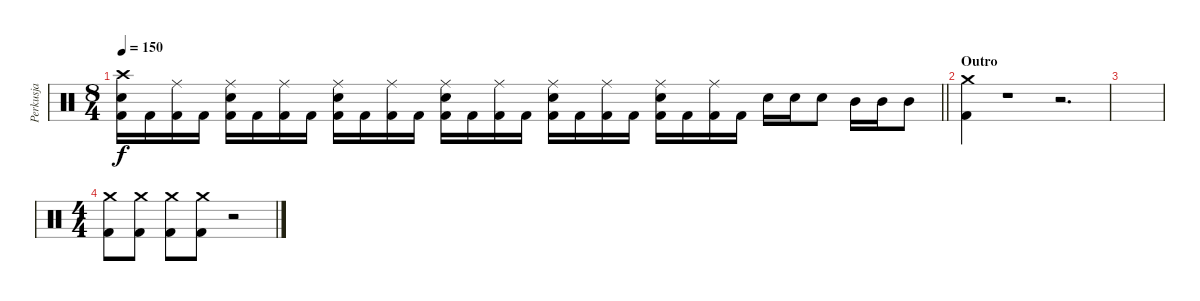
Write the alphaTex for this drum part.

\track ("Perkusja" "Perkusja") {instrument percussion}
\staff {score}
\articulation defaults
\ts (8 4)
\tempo 150
\clef neutral
\barLineRight lightlight
\ks c
("Crash high (hit)" "Snare (hit) 2" "Kick (hit) 2").16{dy f} "Kick (hit) 2".16 ("Ride (middle)" "Kick (hit) 2").16 "Kick (hit) 2".16 ("Ride (middle)" "Snare (hit) 2" "Kick (hit) 2").16 "Kick (hit) 2".16 ("Ride (middle)" "Kick (hit) 2").16 "Kick (hit) 2".16 ("Ride (middle)" "Snare (hit) 2" "Kick (hit) 2").16 "Kick (hit) 2".16 ("Ride (middle)" "Kick (hit) 2").16 "Kick (hit) 2".16 ("Ride (middle)" "Snare (hit) 2" "Kick (hit) 2").16 "Kick (hit) 2".16 ("Ride (middle)" "Kick (hit) 2").16 "Kick (hit) 2".16 ("Ride (middle)" "Snare (hit) 2" "Kick (hit) 2").16 "Kick (hit) 2".16 ("Ride (middle)" "Kick (hit) 2").16 "Kick (hit) 2".16 ("Ride (middle)" "Snare (hit) 2" "Kick (hit) 2").16 "Kick (hit) 2".16 ("Ride (middle)" "Kick (hit) 2").16 "Kick (hit) 2".16 "Snare (hit) 2".16 "Snare (hit) 2".16 "Snare (hit) 2".8 "Mid Tom (hit)".16 "Mid Tom (hit)".16 "Mid Tom (hit)".8 |
\section ("" "Outro")
("Crash medium (hit)" "Kick (hit) 2").4 r.1 r.2{d} |
|
\ts (4 4)
("Crash medium (hit)" "Kick (hit) 2").8 ("Crash medium (hit)" "Kick (hit) 2").8 ("Crash medium (hit)" "Kick (hit) 2").8 ("Crash medium (hit)" "Kick (hit) 2").8 r.2
